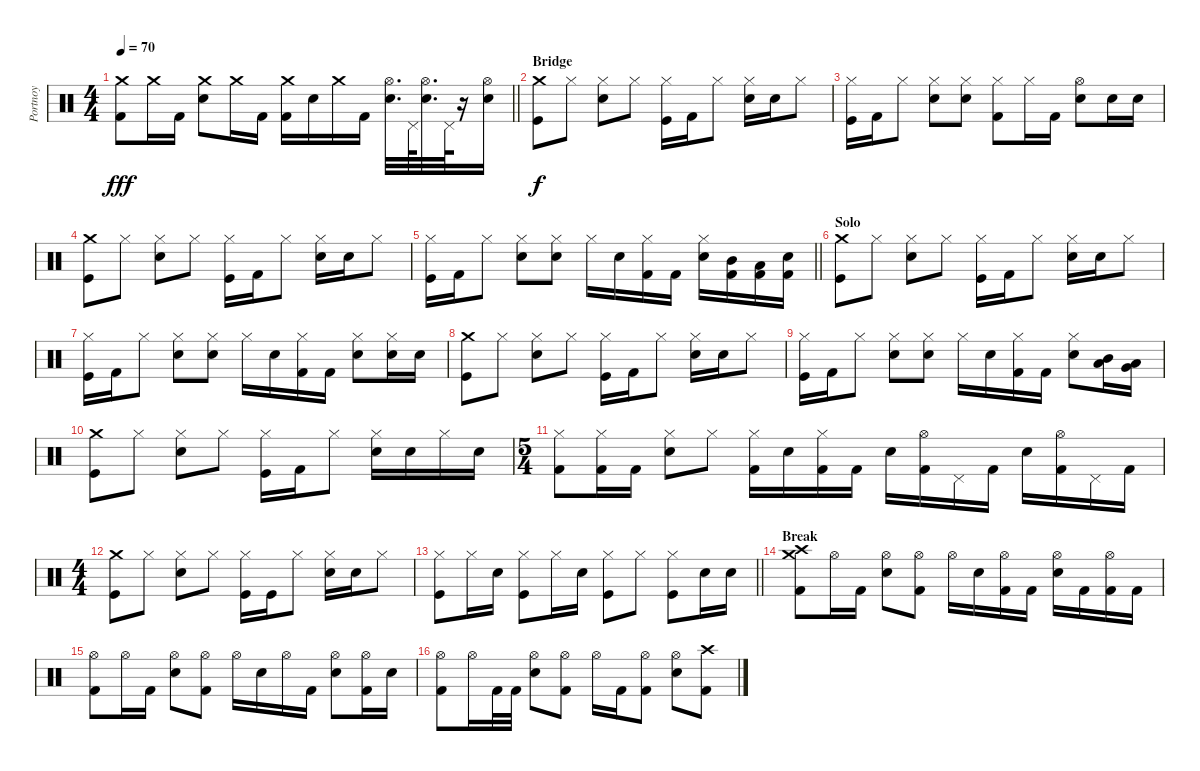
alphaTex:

\track ("Portnoy" "Portnoy") {instrument percussion}
\staff {score}
\articulation defaults
\ts (4 4)
\tempo 70
\clef neutral
\barLineRight lightlight
\ks c
("Crash medium (hit)" "Kick (hit) 2").8{dy fff} "Crash medium (hit)".16 "Kick (hit) 2".16 ("Crash medium (hit)" "Snare (hit) 2").8 "Crash medium (hit)".16 "Kick (hit) 2".16 ("Crash medium (hit)" "Kick (hit) 2").16 "Snare (hit) 2".16 "Crash medium (hit)".16 "Kick (hit) 2".16 ("Hi-Hat (open)" "Snare (hit) 2").32{d} "Pedal Hi-Hat (hit)".64 ("Hi-Hat (open)" "Snare (hit) 2").32{d} "Pedal Hi-Hat (hit)".64 r.16 ("Hi-Hat (open)" "Snare (hit) 2").16 |
\section ("" "Bridge")
("Crash medium (hit)" "Kick (hit)").8{dy f volume 15} "Hi-Hat (closed)".8 ("Electric Snare (hit)" "Hi-Hat (closed)").8 "Hi-Hat (closed)".8 ("Kick (hit)" "Hi-Hat (closed)").16 "Kick (hit) 2".16 "Hi-Hat (closed)".8 ("Hi-Hat (closed)" "Electric Snare (hit)").16 "Electric Snare (hit)".16 "Hi-Hat (closed)".8 |
("Kick (hit)" "Hi-Hat (closed)").16 "Kick (hit) 2".16 "Hi-Hat (closed)".8 ("Hi-Hat (closed)" "Electric Snare (hit)").8 ("Hi-Hat (closed)" "Electric Snare (hit)").8 ("Kick (hit) 2" "Hi-Hat (closed)").8 "Hi-Hat (closed)".16 "Kick (hit) 2".16 ("Hi-Hat (open)" "Electric Snare (hit)").8 "Electric Snare (hit)".16 "Electric Snare (hit)".16 |
("Crash medium (hit)" "Kick (hit)").8 "Hi-Hat (closed)".8 ("Electric Snare (hit)" "Hi-Hat (closed)").8 "Hi-Hat (closed)".8 ("Kick (hit)" "Hi-Hat (closed)").16 "Kick (hit) 2".16 "Hi-Hat (closed)".8 ("Hi-Hat (closed)" "Electric Snare (hit)").16 "Electric Snare (hit)".16 "Hi-Hat (closed)".8 |
\barLineRight lightlight
("Kick (hit)" "Hi-Hat (closed)").16 "Kick (hit) 2".16 "Hi-Hat (closed)".8 ("Hi-Hat (closed)" "Electric Snare (hit)").8 ("Hi-Hat (closed)" "Electric Snare (hit)").8 "Hi-Hat (closed)".16 "Electric Snare (hit)".16 ("Hi-Hat (closed)" "Kick (hit) 2").16 "Kick (hit) 2".16 ("Hi-Hat (closed)" "Electric Snare (hit)").16 ("Kick (hit) 2" "Mid Tom (hit)").16 ("Low Tom (hit)" "Kick (hit) 2").16 ("Electric Snare (hit)" "Kick (hit) 2").16 |
\section ("" "Solo")
("Crash medium (hit)" "Kick (hit)").8 "Hi-Hat (closed)".8 ("Electric Snare (hit)" "Hi-Hat (closed)").8 "Hi-Hat (closed)".8 ("Kick (hit)" "Hi-Hat (closed)").16 "Kick (hit) 2".16 "Hi-Hat (closed)".8 ("Hi-Hat (closed)" "Electric Snare (hit)").16 "Electric Snare (hit)".16 "Hi-Hat (closed)".8 |
("Kick (hit)" "Hi-Hat (closed)").16 "Kick (hit) 2".16 "Hi-Hat (closed)".8 ("Hi-Hat (closed)" "Electric Snare (hit)").8 ("Hi-Hat (closed)" "Electric Snare (hit)").8 "Hi-Hat (closed)".16 "Electric Snare (hit)".16 ("Hi-Hat (closed)" "Kick (hit) 2").16 "Kick (hit) 2".16 ("Hi-Hat (closed)" "Electric Snare (hit)").8 ("Hi-Hat (closed)" "Electric Snare (hit)").16 "Electric Snare (hit)".16 |
("Crash medium (hit)" "Kick (hit)").8 "Hi-Hat (closed)".8 ("Electric Snare (hit)" "Hi-Hat (closed)").8 "Hi-Hat (closed)".8 ("Kick (hit)" "Hi-Hat (closed)").16 "Kick (hit) 2".16 "Hi-Hat (closed)".8 ("Hi-Hat (closed)" "Electric Snare (hit)").16 "Electric Snare (hit)".16 "Hi-Hat (closed)".8 |
("Kick (hit)" "Hi-Hat (closed)").16 "Kick (hit) 2".16 "Hi-Hat (closed)".8 ("Hi-Hat (closed)" "Electric Snare (hit)").8 ("Hi-Hat (closed)" "Electric Snare (hit)").8 "Hi-Hat (closed)".16 "Electric Snare (hit)".16 ("Hi-Hat (closed)" "Kick (hit) 2").16 "Kick (hit) 2".16 ("Hi-Hat (closed)" "Electric Snare (hit)").8 ("Mid Tom (hit)" "Low Tom (hit)").16 ("Low Tom (hit)" "Very Low Tom (hit)").16 |
("Crash medium (hit)" "Kick (hit)").8 "Hi-Hat (closed)".8 ("Electric Snare (hit)" "Hi-Hat (closed)").8 "Hi-Hat (closed)".8 ("Kick (hit)" "Hi-Hat (closed)").16 "Kick (hit) 2".16 "Hi-Hat (closed)".8 ("Hi-Hat (closed)" "Electric Snare (hit)").16 "Electric Snare (hit)".16 "Hi-Hat (closed)".16 "Electric Snare (hit)".16 |
\ts (5 4)
("Hi-Hat (closed)" "Kick (hit) 2").8 ("Kick (hit) 2" "Hi-Hat (closed)").16 "Kick (hit) 2".16 ("Electric Snare (hit)" "Hi-Hat (closed)").8 "Hi-Hat (closed)".8 ("Hi-Hat (closed)" "Kick (hit) 2").16 "Electric Snare (hit)".16 ("Hi-Hat (closed)" "Kick (hit) 2").16 "Kick (hit) 2".16 "Electric Snare (hit)".16 ("Kick (hit) 2" "Hi-Hat (open)").16 "Pedal Hi-Hat (hit)".16 "Kick (hit) 2".16 "Electric Snare (hit)".16 ("Kick (hit) 2" "Hi-Hat (open)").16 "Pedal Hi-Hat (hit)".16 "Kick (hit) 2".16 |
\ts (4 4)
("Crash medium (hit)" "Kick (hit)").8 "Hi-Hat (closed)".8 ("Electric Snare (hit)" "Hi-Hat (closed)").8 "Hi-Hat (closed)".8 ("Kick (hit)" "Hi-Hat (closed)").16 "Kick (hit)".16 "Hi-Hat (closed)".8 ("Hi-Hat (closed)" "Electric Snare (hit)").16 "Electric Snare (hit)".16 "Hi-Hat (closed)".8 |
\barLineRight lightlight
("Hi-Hat (closed)" "Kick (hit)").8 "Hi-Hat (closed)".16 "Electric Snare (hit)".16 ("Hi-Hat (closed)" "Kick (hit)").8 "Hi-Hat (closed)".16 "Electric Snare (hit)".16 ("Kick (hit)" "Hi-Hat (closed)").8 "Hi-Hat (closed)".8 ("Kick (hit)" "Hi-Hat (closed)").8 "Electric Snare (hit)".16 "Electric Snare (hit)".16 |
\section ("" "Break")
("Crash medium (hit)" "Crash high (hit)" "Kick (hit) 2").8 "Hi-Hat (open)".16 "Kick (hit) 2".16 ("Hi-Hat (open)" "Snare (hit) 2").8 ("Kick (hit) 2" "Hi-Hat (open)").8 "Hi-Hat (open)".16 "Snare (hit) 2".16 ("Hi-Hat (open)" "Kick (hit) 2").16 "Kick (hit) 2".16 ("Hi-Hat (open)" "Snare (hit) 2").16 "Kick (hit) 2".16 ("Kick (hit) 2" "Hi-Hat (open)").16 "Kick (hit) 2".16 |
("Kick (hit) 2" "Hi-Hat (open)").8 "Hi-Hat (open)".16 "Kick (hit) 2".16 ("Hi-Hat (open)" "Snare (hit) 2").8 ("Kick (hit) 2" "Hi-Hat (open)").8 "Hi-Hat (open)".16 "Snare (hit) 2".16 "Hi-Hat (open)".16 "Kick (hit) 2".16 ("Hi-Hat (open)" "Snare (hit) 2").8 ("Hi-Hat (open)" "Kick (hit) 2").16 "Snare (hit) 2".16 |
("Hi-Hat (open)" "Kick (hit) 2").8 "Hi-Hat (open)".16 "Kick (hit) 2".32 "Kick (hit) 2".32 ("Hi-Hat (open)" "Snare (hit) 2").8 ("Kick (hit) 2" "Hi-Hat (open)").8 "Hi-Hat (open)".16 "Kick (hit) 2".16 ("Kick (hit) 2" "Hi-Hat (open)").8 ("Hi-Hat (open)" "Snare (hit) 2").8 ("Crash high (hit)" "Kick (hit) 2").8
